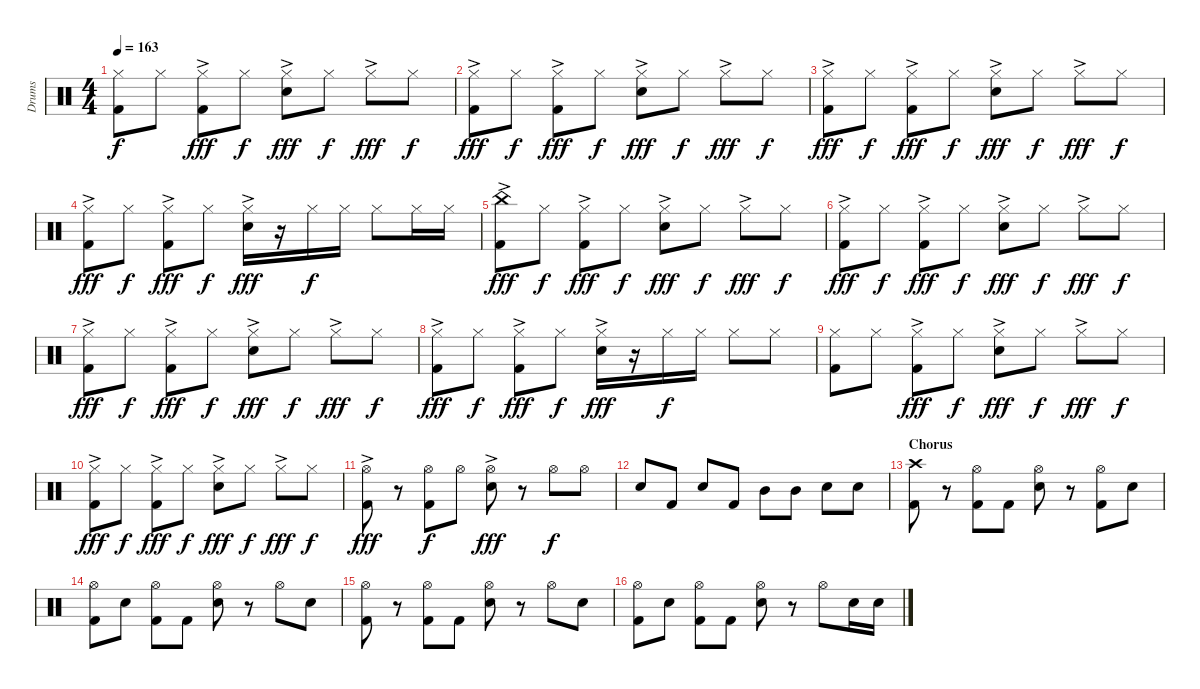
\track ("Drums" "Drums") {instrument percussion}
\staff {score}
\articulation defaults
\ts (4 4)
\tempo 163
\clef neutral
\ks c
("Hi-Hat (closed)" "Kick (hit) 2").8{dy f} "Hi-Hat (closed)".8 ("Hi-Hat (closed)"{ac} "Kick (hit) 2").8{dy fff} "Hi-Hat (closed)".8{dy f} ("Hi-Hat (closed)"{ac} "Snare (hit) 2").8{dy fff} "Hi-Hat (closed)".8{dy f} "Hi-Hat (closed)"{ac}.8{dy fff} "Hi-Hat (closed)".8{dy f} |
("Hi-Hat (closed)"{ac} "Kick (hit) 2").8{dy fff} "Hi-Hat (closed)".8{dy f} ("Hi-Hat (closed)"{ac} "Kick (hit) 2").8{dy fff} "Hi-Hat (closed)".8{dy f} ("Hi-Hat (closed)"{ac} "Snare (hit) 2").8{dy fff} "Hi-Hat (closed)".8{dy f} "Hi-Hat (closed)"{ac}.8{dy fff} "Hi-Hat (closed)".8{dy f} |
("Hi-Hat (closed)"{ac} "Kick (hit) 2").8{dy fff} "Hi-Hat (closed)".8{dy f} ("Hi-Hat (closed)"{ac} "Kick (hit) 2").8{dy fff} "Hi-Hat (closed)".8{dy f} ("Hi-Hat (closed)"{ac} "Snare (hit) 2").8{dy fff} "Hi-Hat (closed)".8{dy f} "Hi-Hat (closed)"{ac}.8{dy fff} "Hi-Hat (closed)".8{dy f} |
("Hi-Hat (closed)"{ac} "Kick (hit) 2").8{dy fff} "Hi-Hat (closed)".8{dy f} ("Hi-Hat (closed)"{ac} "Kick (hit) 2").8{dy fff} "Hi-Hat (closed)".8{dy f} ("Hi-Hat (closed)"{ac} "Snare (hit) 2").16{dy fff} r.16 "Hi-Hat (closed)".16{dy f} "Hi-Hat (closed)".16 "Hi-Hat (closed)".8 "Hi-Hat (closed)".16 "Hi-Hat (closed)".16 |
("China (hit)"{ac} "Kick (hit) 2").8{dy fff} "Hi-Hat (closed)".8{dy f} ("Hi-Hat (closed)"{ac} "Kick (hit) 2").8{dy fff} "Hi-Hat (closed)".8{dy f} ("Hi-Hat (closed)"{ac} "Snare (hit) 2").8{dy fff} "Hi-Hat (closed)".8{dy f} "Hi-Hat (closed)"{ac}.8{dy fff} "Hi-Hat (closed)".8{dy f} |
("Hi-Hat (closed)"{ac} "Kick (hit) 2").8{dy fff} "Hi-Hat (closed)".8{dy f} ("Hi-Hat (closed)"{ac} "Kick (hit) 2").8{dy fff} "Hi-Hat (closed)".8{dy f} ("Hi-Hat (closed)"{ac} "Snare (hit) 2").8{dy fff} "Hi-Hat (closed)".8{dy f} "Hi-Hat (closed)"{ac}.8{dy fff} "Hi-Hat (closed)".8{dy f} |
("Hi-Hat (closed)"{ac} "Kick (hit) 2").8{dy fff} "Hi-Hat (closed)".8{dy f} ("Hi-Hat (closed)"{ac} "Kick (hit) 2").8{dy fff} "Hi-Hat (closed)".8{dy f} ("Hi-Hat (closed)"{ac} "Snare (hit) 2").8{dy fff} "Hi-Hat (closed)".8{dy f} "Hi-Hat (closed)"{ac}.8{dy fff} "Hi-Hat (closed)".8{dy f} |
("Hi-Hat (closed)"{ac} "Kick (hit) 2").8{dy fff} "Hi-Hat (closed)".8{dy f} ("Hi-Hat (closed)"{ac} "Kick (hit) 2").8{dy fff} "Hi-Hat (closed)".8{dy f} ("Hi-Hat (closed)"{ac} "Snare (hit) 2").16{dy fff} r.16 "Hi-Hat (closed)".16{dy f} "Hi-Hat (closed)".16 "Hi-Hat (closed)".8 "Hi-Hat (closed)".8 |
("Hi-Hat (closed)" "Kick (hit) 2").8 "Hi-Hat (closed)".8 ("Hi-Hat (closed)"{ac} "Kick (hit) 2").8{dy fff} "Hi-Hat (closed)".8{dy f} ("Hi-Hat (closed)"{ac} "Snare (hit) 2").8{dy fff} "Hi-Hat (closed)".8{dy f} "Hi-Hat (closed)"{ac}.8{dy fff} "Hi-Hat (closed)".8{dy f} |
("Hi-Hat (closed)"{ac} "Kick (hit) 2").8{dy fff} "Hi-Hat (closed)".8{dy f} ("Hi-Hat (closed)"{ac} "Kick (hit) 2").8{dy fff} "Hi-Hat (closed)".8{dy f} ("Hi-Hat (closed)"{ac} "Snare (hit) 2").8{dy fff} "Hi-Hat (closed)".8{dy f} "Hi-Hat (closed)"{ac}.8{dy fff} "Hi-Hat (closed)".8{dy f} |
("Hi-Hat (open)"{ac} "Kick (hit) 2").8{dy fff} r.8 ("Hi-Hat (open)" "Kick (hit) 2").8{dy f} "Hi-Hat (open)".8 ("Hi-Hat (open)"{ac} "Snare (hit) 2").8{dy fff} r.8 "Hi-Hat (open)".8{dy f} "Hi-Hat (open)".8 |
"Snare (hit) 2".8 "Kick (hit) 2".8 "Snare (hit) 2".8 "Kick (hit) 2".8 "Mid Tom (hit)".8 "Mid Tom (hit)".8 "Snare (hit) 2".8 "Snare (hit) 2".8 |
\section ("" "Chorus")
("Crash high (hit)" "Kick (hit) 2").8 r.8 ("Hi-Hat (open)" "Kick (hit) 2").8 "Kick (hit) 2".8 ("Hi-Hat (open)" "Snare (hit) 2").8 r.8 ("Hi-Hat (open)" "Kick (hit) 2").8 "Snare (hit) 2".8 |
("Hi-Hat (open)" "Kick (hit) 2").8 "Snare (hit) 2".8 ("Hi-Hat (open)" "Kick (hit) 2").8 "Kick (hit) 2".8 ("Hi-Hat (open)" "Snare (hit) 2").8 r.8 "Hi-Hat (open)".8 "Snare (hit) 2".8 |
("Hi-Hat (open)" "Kick (hit) 2").8 r.8 ("Hi-Hat (open)" "Kick (hit) 2").8 "Kick (hit) 2".8 ("Hi-Hat (open)" "Snare (hit) 2").8 r.8 "Hi-Hat (open)".8 "Snare (hit) 2".8 |
("Hi-Hat (open)" "Kick (hit) 2").8 "Snare (hit) 2".8 ("Hi-Hat (open)" "Kick (hit) 2").8 "Kick (hit) 2".8 ("Hi-Hat (open)" "Snare (hit) 2").8 r.8 "Hi-Hat (open)".8 "Snare (hit) 2".16 "Snare (hit) 2".16
